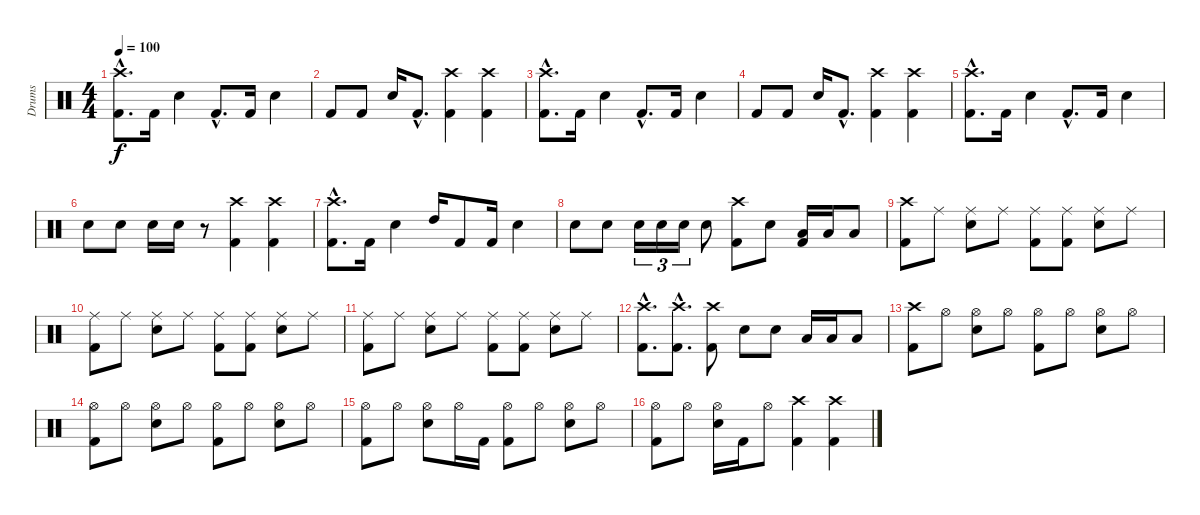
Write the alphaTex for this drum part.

\track ("Drums" "Drums") {instrument percussion}
\staff {score}
\articulation defaults
\ts (4 4)
\tempo 100
\clef neutral
\ks c
("Crash high (hit)"{hac} "Kick (hit) 2"{hac}).8{d dy f} "Kick (hit) 2".16 "Electric Snare (hit)".4 "Kick (hit) 2"{hac}.8{d} "Kick (hit) 2".16 "Electric Snare (hit)".4 |
"Kick (hit) 2".8 "Kick (hit) 2".8 "Electric Snare (hit)".16 "Kick (hit) 2"{hac}.8{d} ("Crash high (hit)" "Kick (hit) 2").4 ("Crash high (hit)" "Kick (hit) 2").4 |
("Crash high (hit)"{hac} "Kick (hit) 2"{hac}).8{d} "Kick (hit) 2".16 "Electric Snare (hit)".4 "Kick (hit) 2"{hac}.8{d} "Kick (hit) 2".16 "Electric Snare (hit)".4 |
"Kick (hit) 2".8 "Kick (hit) 2".8 "Electric Snare (hit)".16 "Kick (hit) 2"{hac}.8{d} ("Crash high (hit)" "Kick (hit) 2").4 ("Crash high (hit)" "Kick (hit) 2").4 |
("Crash high (hit)"{hac} "Kick (hit) 2"{hac}).8{d} "Kick (hit) 2".16 "Electric Snare (hit)".4 "Kick (hit) 2"{hac}.8{d} "Kick (hit) 2".16 "Electric Snare (hit)".4 |
"Electric Snare (hit)".8 "Electric Snare (hit)".8 "Electric Snare (hit)".16 "Electric Snare (hit)".16 r.8 ("Crash high (hit)" "Kick (hit) 2").4 ("Crash high (hit)" "Kick (hit) 2").4 |
("Crash high (hit)"{hac} "Kick (hit) 2"{hac}).8{d} "Kick (hit) 2".16 "Electric Snare (hit)".4 "High Tom (hit)".16 "Kick (hit) 2".8 "Kick (hit) 2".16 "Electric Snare (hit)".4 |
"Electric Snare (hit)".8 "Electric Snare (hit)".8 "Electric Snare (hit)".16{tu (3 2)} "Electric Snare (hit)".16{tu (3 2)} "Electric Snare (hit)".16{tu (3 2)} "Electric Snare (hit)".8 ("Crash high (hit)" "Kick (hit) 2").8 "Electric Snare (hit)".8 ("Low Tom (hit)" "Kick (hit) 2").16 "Low Tom (hit)".16 "Low Tom (hit)".8 |
("Crash high (hit)" "Kick (hit) 2").8 "Ride (middle)".8 ("Ride (middle)" "Electric Snare (hit)").8 "Ride (middle)".8 ("Ride (middle)" "Kick (hit) 2").8 ("Ride (middle)" "Kick (hit) 2").8 ("Ride (middle)" "Electric Snare (hit)").8 "Ride (middle)".8 |
("Ride (middle)" "Kick (hit) 2").8 "Ride (middle)".8 ("Ride (middle)" "Electric Snare (hit)").8 "Ride (middle)".8 ("Ride (middle)" "Kick (hit) 2").8 ("Ride (middle)" "Kick (hit) 2").8 ("Ride (middle)" "Electric Snare (hit)").8 "Ride (middle)".8 |
("Ride (middle)" "Kick (hit) 2").8 "Ride (middle)".8 ("Ride (middle)" "Electric Snare (hit)").8 "Ride (middle)".8 ("Ride (middle)" "Kick (hit) 2").8 ("Ride (middle)" "Kick (hit) 2").8 ("Ride (middle)" "Electric Snare (hit)").8 "Ride (middle)".8 |
("Crash high (hit)"{hac} "Kick (hit) 2"{hac}).8{d} ("Crash high (hit)"{hac} "Kick (hit) 2"{hac}).8{d} ("Crash high (hit)" "Kick (hit) 2").8 "Electric Snare (hit)".8 "Electric Snare (hit)".8 "Low Tom (hit)".16 "Low Tom (hit)".16 "Low Tom (hit)".8 |
("Crash high (hit)" "Kick (hit) 2").8 "Hi-Hat (open)".8 ("Hi-Hat (open)" "Electric Snare (hit)").8 "Hi-Hat (open)".8 ("Hi-Hat (open)" "Kick (hit) 2").8 "Hi-Hat (open)".8 ("Hi-Hat (open)" "Electric Snare (hit)").8 "Hi-Hat (open)".8 |
("Hi-Hat (open)" "Kick (hit) 2").8 "Hi-Hat (open)".8 ("Hi-Hat (open)" "Electric Snare (hit)").8 "Hi-Hat (open)".8 ("Hi-Hat (open)" "Kick (hit) 2").8 "Hi-Hat (open)".8 ("Hi-Hat (open)" "Electric Snare (hit)").8 "Hi-Hat (open)".8 |
("Hi-Hat (open)" "Kick (hit) 2").8 "Hi-Hat (open)".8 ("Hi-Hat (open)" "Electric Snare (hit)").8 "Hi-Hat (open)".16 "Kick (hit) 2".16 ("Hi-Hat (open)" "Kick (hit) 2").8 "Hi-Hat (open)".8 ("Hi-Hat (open)" "Electric Snare (hit)").8 "Hi-Hat (open)".8 |
("Hi-Hat (open)" "Kick (hit) 2").8 "Hi-Hat (open)".8 ("Hi-Hat (open)" "Electric Snare (hit)").16 "Kick (hit) 2".16 "Hi-Hat (open)".8 ("Crash high (hit)" "Kick (hit) 2").4 ("Crash high (hit)" "Kick (hit) 2").4
